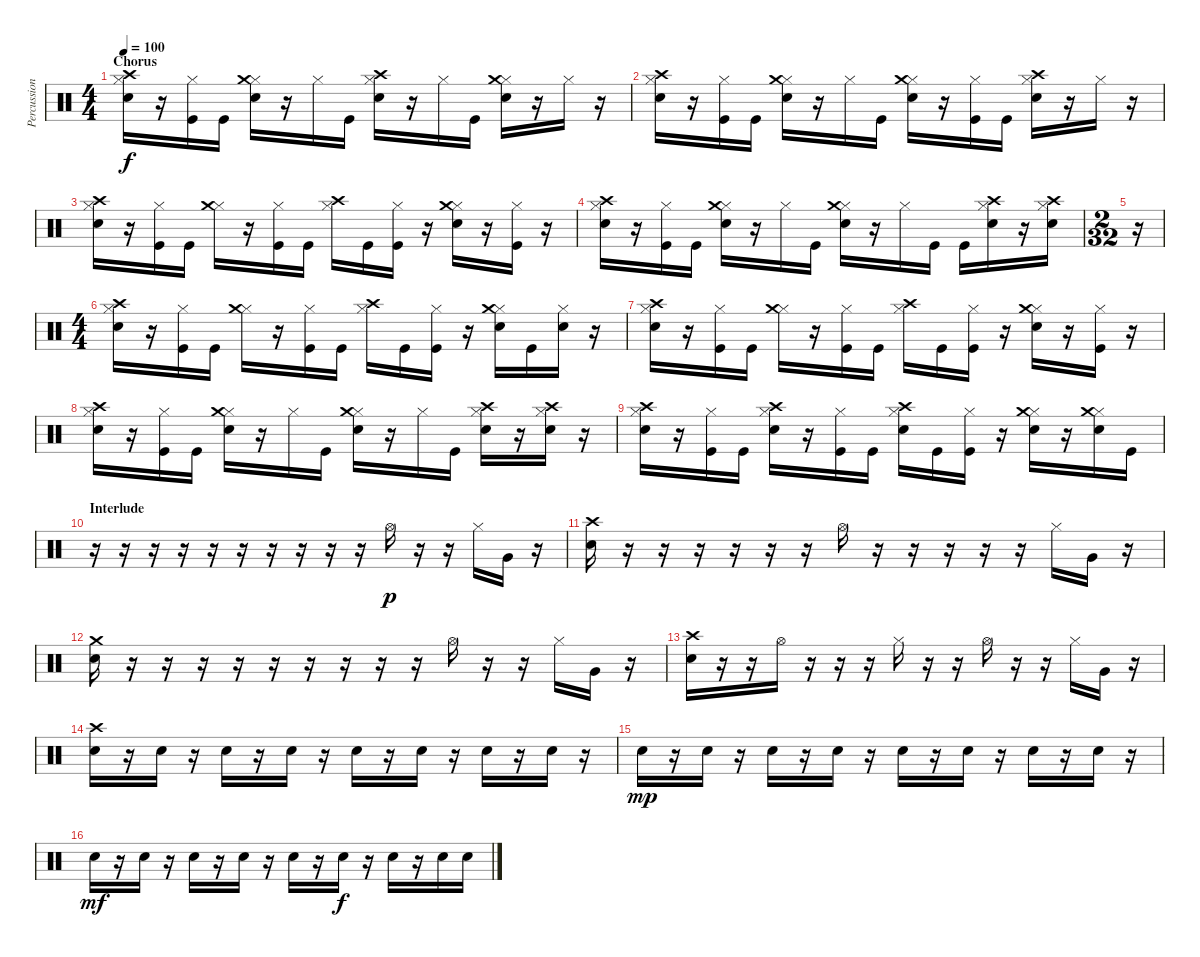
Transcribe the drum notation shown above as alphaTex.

\track ("Percussion" "Percussion") {instrument percussion}
\staff {score}
\articulation defaults
\ts (4 4)
\section ("" "Chorus")
\tempo 100
\clef neutral
\ks c
("Hi-Hat (closed)" "Crash high (hit)" "Electric Snare (hit)").16{dy f} r.16 ("Hi-Hat (closed)" "Kick (hit)").16 "Kick (hit)".16 ("Hi-Hat (closed)" "Crash medium (hit)" "Electric Snare (hit)").16 r.16 "Hi-Hat (closed)".16 "Kick (hit)".16 ("Hi-Hat (closed)" "Crash high (hit)" "Electric Snare (hit)").16 r.16 "Hi-Hat (closed)".16 "Kick (hit)".16 ("Hi-Hat (closed)" "Crash medium (hit)" "Electric Snare (hit)").16 r.16 "Hi-Hat (closed)".16 r.16 |
("Hi-Hat (closed)" "Crash high (hit)" "Electric Snare (hit)").16 r.16 ("Hi-Hat (closed)" "Kick (hit)").16 "Kick (hit)".16 ("Hi-Hat (closed)" "Crash medium (hit)" "Electric Snare (hit)").16 r.16 "Hi-Hat (closed)".16 "Kick (hit)".16 ("Hi-Hat (closed)" "Crash medium (hit)" "Electric Snare (hit)").16 r.16 ("Hi-Hat (closed)" "Kick (hit)").16 "Kick (hit)".16 ("Hi-Hat (closed)" "Crash high (hit)" "Electric Snare (hit)").16 r.16 "Hi-Hat (closed)".16 r.16 |
("Hi-Hat (closed)" "Crash high (hit)" "Electric Snare (hit)").16 r.16 ("Hi-Hat (closed)" "Kick (hit)").16 "Kick (hit)".16 ("Hi-Hat (closed)" "Crash medium (hit)").16 r.16 ("Hi-Hat (closed)" "Kick (hit)").16 "Kick (hit)".16 ("Hi-Hat (closed)" "Crash high (hit)").16 "Kick (hit)".16 ("Hi-Hat (closed)" "Kick (hit)").16 r.16 ("Hi-Hat (closed)" "Crash medium (hit)" "Electric Snare (hit)").16 r.16 ("Hi-Hat (closed)" "Kick (hit)").16 r.16 |
("Hi-Hat (closed)" "Crash high (hit)" "Electric Snare (hit)").16 r.16 ("Hi-Hat (closed)" "Kick (hit)").16 "Kick (hit)".16 ("Hi-Hat (closed)" "Crash medium (hit)" "Electric Snare (hit)").16 r.16 "Hi-Hat (closed)".16 "Kick (hit)".16 ("Hi-Hat (closed)" "Crash medium (hit)" "Electric Snare (hit)").16 r.16 "Hi-Hat (closed)".16 "Kick (hit)".16 "Kick (hit)".16 ("Hi-Hat (closed)" "Crash high (hit)" "Electric Snare (hit)").16 r.16 ("Hi-Hat (closed)" "Crash high (hit)" "Electric Snare (hit)").16 |
\ts (2 32)
r.16 |
\ts (4 4)
("Hi-Hat (closed)" "Crash high (hit)" "Electric Snare (hit)").16 r.16 ("Hi-Hat (closed)" "Kick (hit)").16 "Kick (hit)".16 ("Hi-Hat (closed)" "Crash medium (hit)").16 r.16 ("Hi-Hat (closed)" "Kick (hit)").16 "Kick (hit)".16 ("Hi-Hat (closed)" "Crash high (hit)").16 "Kick (hit)".16 ("Hi-Hat (closed)" "Kick (hit)").16 r.16 ("Hi-Hat (closed)" "Crash medium (hit)" "Electric Snare (hit)").16 "Kick (hit)".16 ("Hi-Hat (closed)" "Electric Snare (hit)").16 r.16 |
("Hi-Hat (closed)" "Crash high (hit)" "Electric Snare (hit)").16 r.16 ("Hi-Hat (closed)" "Kick (hit)").16 "Kick (hit)".16 ("Hi-Hat (closed)" "Crash medium (hit)").16 r.16 ("Hi-Hat (closed)" "Kick (hit)").16 "Kick (hit)".16 ("Hi-Hat (closed)" "Crash high (hit)").16 "Kick (hit)".16 ("Hi-Hat (closed)" "Kick (hit)").16 r.16 ("Hi-Hat (closed)" "Crash medium (hit)" "Electric Snare (hit)").16 r.16 ("Hi-Hat (closed)" "Kick (hit)").16 r.16 |
("Hi-Hat (closed)" "Crash high (hit)" "Electric Snare (hit)").16 r.16 ("Hi-Hat (closed)" "Kick (hit)").16 "Kick (hit)".16 ("Hi-Hat (closed)" "Crash medium (hit)" "Electric Snare (hit)").16 r.16 "Hi-Hat (closed)".16 "Kick (hit)".16 ("Hi-Hat (closed)" "Crash medium (hit)" "Electric Snare (hit)").16 r.16 "Hi-Hat (closed)".16 "Kick (hit)".16 ("Hi-Hat (closed)" "Crash high (hit)" "Electric Snare (hit)").16 r.16 ("Hi-Hat (closed)" "Crash high (hit)" "Electric Snare (hit)").16 r.16 |
("Hi-Hat (closed)" "Crash high (hit)" "Electric Snare (hit)").16 r.16 ("Hi-Hat (closed)" "Kick (hit)").16 "Kick (hit)".16 ("Hi-Hat (closed)" "Crash high (hit)" "Electric Snare (hit)").16 r.16 ("Hi-Hat (closed)" "Kick (hit)").16 "Kick (hit)".16 ("Hi-Hat (closed)" "Crash high (hit)" "Electric Snare (hit)").16 "Kick (hit)".16 ("Hi-Hat (closed)" "Kick (hit)").16 r.16 ("Hi-Hat (closed)" "Crash medium (hit)" "Electric Snare (hit)").16 r.16 ("Hi-Hat (closed)" "Crash medium (hit)" "Electric Snare (hit)").16 "Kick (hit)".16 |
\section ("" "Interlude")
r.16 r.16 r.16 r.16 r.16 r.16 r.16 r.16 r.16 r.16 "Hi-Hat (open)".16{dy p} r.16 r.16 "Hi-Hat (closed)".16 "Very Low Tom (hit)".16 r.16 |
("Crash high (hit)" "Electric Snare (hit)").16 r.16 r.16 r.16 r.16 r.16 r.16 "Hi-Hat (open)".16 r.16 r.16 r.16 r.16 r.16 "Hi-Hat (closed)".16 "Very Low Tom (hit)".16 r.16 |
("Crash medium (hit)" "Electric Snare (hit)").16 r.16 r.16 r.16 r.16 r.16 r.16 r.16 r.16 r.16 "Hi-Hat (open)".16 r.16 r.16 "Hi-Hat (closed)".16 "Very Low Tom (hit)".16 r.16 |
("Crash high (hit)" "Electric Snare (hit)").16 r.16 r.16 "Hi-Hat (open)".16 r.16 r.16 r.16 "Hi-Hat (closed)".16 r.16 r.16 "Hi-Hat (open)".16 r.16 r.16 "Hi-Hat (closed)".16 "Very Low Tom (hit)".16 r.16 |
("Crash high (hit)" "Electric Snare (hit)").16 r.16 "Electric Snare (hit)".16 r.16 "Electric Snare (hit)".16 r.16 "Electric Snare (hit)".16 r.16 "Electric Snare (hit)".16 r.16 "Electric Snare (hit)".16 r.16 "Electric Snare (hit)".16 r.16 "Electric Snare (hit)".16 r.16 |
"Electric Snare (hit)".16{dy mp} r.16 "Electric Snare (hit)".16 r.16 "Electric Snare (hit)".16 r.16 "Electric Snare (hit)".16 r.16 "Electric Snare (hit)".16 r.16 "Electric Snare (hit)".16 r.16 "Electric Snare (hit)".16 r.16 "Electric Snare (hit)".16 r.16 |
"Electric Snare (hit)".16{dy mf} r.16 "Electric Snare (hit)".16 r.16 "Electric Snare (hit)".16 r.16 "Electric Snare (hit)".16 r.16 "Electric Snare (hit)".16 r.16 "Electric Snare (hit)".16{dy f} r.16 "Electric Snare (hit)".16 r.16 "Electric Snare (hit)".16 "Electric Snare (hit)".16
